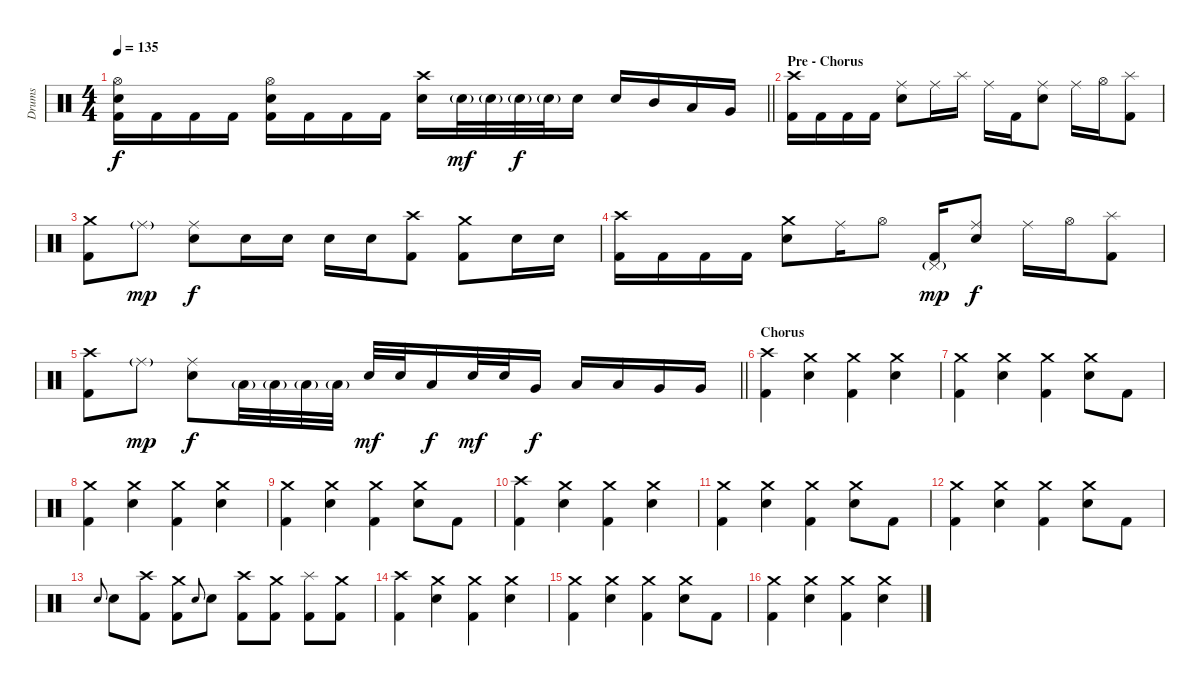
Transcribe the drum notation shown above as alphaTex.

\track ("Drums" "Drums") {instrument percussion}
\staff {score}
\articulation defaults
\ts (4 4)
\tempo 135
\clef neutral
\barLineRight lightlight
\ks c
("Hi-Hat (open)" "Electric Snare (hit)" "Kick (hit) 2").16{dy f} "Kick (hit) 2".16 "Kick (hit) 2".16 "Kick (hit) 2".16 ("Hi-Hat (open)" "Electric Snare (hit)" "Kick (hit) 2").16 "Kick (hit) 2".16 "Kick (hit) 2".16 "Kick (hit) 2".16 ("Crash high (hit)" "Electric Snare (hit)").16 "Electric Snare (hit)"{g}.32{dy mf} "Electric Snare (hit)"{g}.32 "Electric Snare (hit)"{g}.32{dy f} "Electric Snare (hit)"{g}.32 "Electric Snare (hit)".16 "Electric Snare (hit)".16 "Mid Tom (hit)".16 "Low Tom (hit)".16 "Very Low Tom (hit)".16 |
\section ("" "Pre - Chorus")
("Crash high (hit)" "Kick (hit) 2").16 "Kick (hit) 2".16 "Kick (hit) 2".16 "Kick (hit) 2".16 ("Ride (middle)" "Electric Snare (hit)").8 "Ride (middle)".16 "Splash (hit)".16 "Ride (middle)".16 "Kick (hit) 2".16 ("Ride (middle)" "Electric Snare (hit)").8 "Ride (middle)".16 "Hi-Hat (open)".16 ("Splash (hit)" "Kick (hit) 2").8 |
("Crash medium (hit)" "Kick (hit) 2").8 "Ride (middle)"{g}.8{dy mp} ("Ride (middle)" "Electric Snare (hit)").8{dy f} "Electric Snare (hit)".16 "Electric Snare (hit)".16 "Electric Snare (hit)".16 "Electric Snare (hit)".16 ("Crash high (hit)" "Kick (hit) 2").8 ("Crash medium (hit)" "Kick (hit) 2").8 "Electric Snare (hit)".16 "Electric Snare (hit)".16 |
("Crash high (hit)" "Kick (hit) 2").16 "Kick (hit) 2".16 "Kick (hit) 2".16 "Kick (hit) 2".16 ("Crash medium (hit)" "Electric Snare (hit)").8 "Ride (middle)".16 "Hi-Hat (open)".8 ("Pedal Hi-Hat (hit)"{g} "Kick (hit) 2").16{dy mp} ("Ride (middle)" "Electric Snare (hit)").8{dy f} "Ride (middle)".16 "Hi-Hat (open)".16 ("Splash (hit)" "Kick (hit) 2").8 |
\barLineRight lightlight
("Crash high (hit)" "Kick (hit) 2").8 "Ride (middle)"{g}.8{dy mp} ("Ride (middle)" "Electric Snare (hit)").8{dy f} "Low Tom (hit)"{g}.32 "Low Tom (hit)"{g}.32 "Low Tom (hit)"{g}.32 "Low Tom (hit)"{g}.32 "Electric Snare (hit)".32{dy mf} "Electric Snare (hit)".32 "Low Tom (hit)".16{dy f} "Electric Snare (hit)".32{dy mf} "Electric Snare (hit)".32 "Very Low Tom (hit)".16{dy f} "Low Tom (hit)".16 "Low Tom (hit)".16 "Very Low Tom (hit)".16 "Very Low Tom (hit)".16 |
\section ("" "Chorus")
("Crash high (hit)" "Kick (hit) 2").4 ("Crash medium (hit)" "Electric Snare (hit)").4 ("Crash medium (hit)" "Kick (hit) 2").4 ("Crash medium (hit)" "Electric Snare (hit)").4 |
("Crash medium (hit)" "Kick (hit) 2").4 ("Crash medium (hit)" "Electric Snare (hit)").4 ("Crash medium (hit)" "Kick (hit) 2").4 ("Crash medium (hit)" "Electric Snare (hit)").8 "Kick (hit) 2".8 |
("Crash medium (hit)" "Kick (hit) 2").4 ("Crash medium (hit)" "Electric Snare (hit)").4 ("Crash medium (hit)" "Kick (hit) 2").4 ("Crash medium (hit)" "Electric Snare (hit)").4 |
("Crash medium (hit)" "Kick (hit) 2").4 ("Crash medium (hit)" "Electric Snare (hit)").4 ("Crash medium (hit)" "Kick (hit) 2").4 ("Crash medium (hit)" "Electric Snare (hit)").8 "Kick (hit) 2".8 |
("Crash high (hit)" "Kick (hit) 2").4 ("Crash medium (hit)" "Electric Snare (hit)").4 ("Crash medium (hit)" "Kick (hit) 2").4 ("Crash medium (hit)" "Electric Snare (hit)").4 |
("Crash medium (hit)" "Kick (hit) 2").4 ("Crash medium (hit)" "Electric Snare (hit)").4 ("Crash medium (hit)" "Kick (hit) 2").4 ("Crash medium (hit)" "Electric Snare (hit)").8 "Kick (hit) 2".8 |
("Crash medium (hit)" "Kick (hit) 2").4 ("Crash medium (hit)" "Electric Snare (hit)").4 ("Crash medium (hit)" "Kick (hit) 2").4 ("Crash medium (hit)" "Electric Snare (hit)").8 "Kick (hit) 2".8 |
"Electric Snare (hit)".8{gr onbeat} "Electric Snare (hit)".8 ("Crash high (hit)" "Kick (hit) 2").8 ("Crash medium (hit)" "Kick (hit) 2").8 "Electric Snare (hit)".8{gr onbeat} "Electric Snare (hit)".8 ("Crash high (hit)" "Kick (hit) 2").8 ("Crash medium (hit)" "Kick (hit) 2").8 ("Splash (hit)" "Kick (hit) 2").8 ("Crash medium (hit)" "Kick (hit) 2").8 |
("Crash high (hit)" "Kick (hit) 2").4 ("Crash medium (hit)" "Electric Snare (hit)").4 ("Crash medium (hit)" "Kick (hit) 2").4 ("Crash medium (hit)" "Electric Snare (hit)").4 |
("Crash medium (hit)" "Kick (hit) 2").4 ("Crash medium (hit)" "Electric Snare (hit)").4 ("Crash medium (hit)" "Kick (hit) 2").4 ("Crash medium (hit)" "Electric Snare (hit)").8 "Kick (hit) 2".8 |
("Crash medium (hit)" "Kick (hit) 2").4 ("Crash medium (hit)" "Electric Snare (hit)").4 ("Crash medium (hit)" "Kick (hit) 2").4 ("Crash medium (hit)" "Electric Snare (hit)").4
